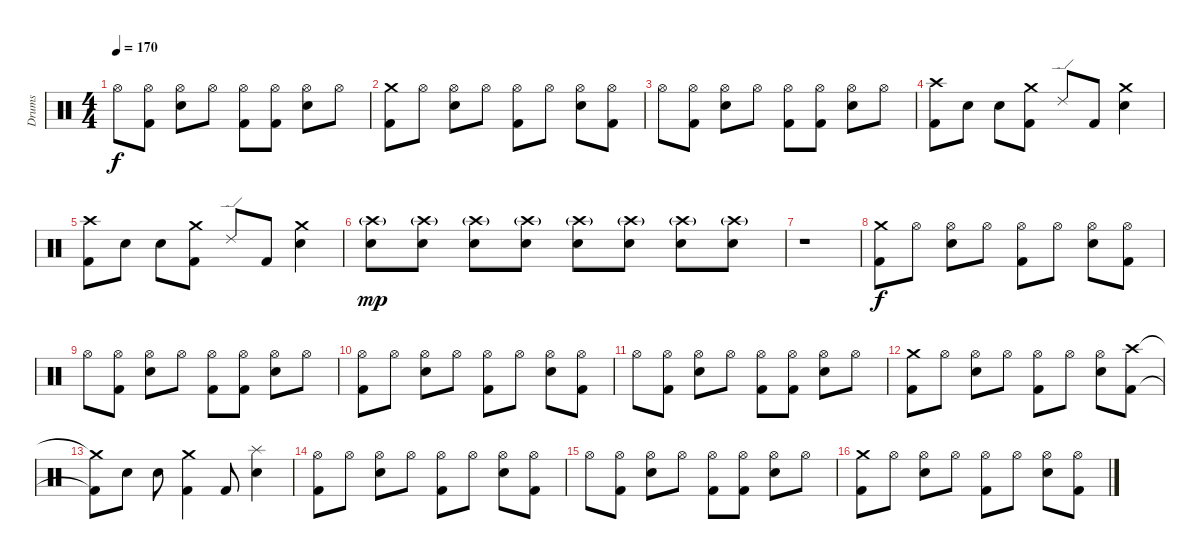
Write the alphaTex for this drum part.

\track ("Drums" "Drums") {instrument percussion}
\staff {score}
\articulation defaults
\ts (4 4)
\tempo 170
\clef neutral
\ks c "Hi-Hat (open)".8{dy f}
("Kick (hit) 2" "Hi-Hat (open)").8 ("Electric Snare (hit)" "Hi-Hat (open)").8 "Hi-Hat (open)".8 ("Kick (hit) 2" "Hi-Hat (open)").8 ("Kick (hit) 2" "Hi-Hat (open)").8 ("Electric Snare (hit)" "Hi-Hat (open)").8 "Hi-Hat (open)".8 |
("Kick (hit) 2" "Crash medium (hit)").8 "Hi-Hat (open)".8 ("Electric Snare (hit)" "Hi-Hat (open)").8 "Hi-Hat (open)".8 ("Kick (hit) 2" "Hi-Hat (open)").8 "Hi-Hat (open)".8 ("Electric Snare (hit)" "Hi-Hat (open)").8 ("Kick (hit) 2" "Hi-Hat (open)").8 |
"Hi-Hat (open)".8 ("Kick (hit) 2" "Hi-Hat (open)").8 ("Electric Snare (hit)" "Hi-Hat (open)").8 "Hi-Hat (open)".8 ("Kick (hit) 2" "Hi-Hat (open)").8 ("Kick (hit) 2" "Hi-Hat (open)").8 ("Electric Snare (hit)" "Hi-Hat (open)").8 "Hi-Hat (open)".8 |
("Kick (hit) 2" "Crash high (hit)").8 "Electric Snare (hit)".8 "Electric Snare (hit)".8 ("Kick (hit) 2" "Crash medium (hit)").8 "Ride (edge) 2".8 "Kick (hit) 2".8 ("Electric Snare (hit)" "Crash medium (hit)").4 |
("Kick (hit) 2" "Crash high (hit)").8 "Electric Snare (hit)".8 "Electric Snare (hit)".8 ("Kick (hit) 2" "Crash medium (hit)").8 "Ride (edge) 2".8 "Kick (hit) 2".8 ("Electric Snare (hit)" "Crash medium (hit)").4 |
("Electric Snare (hit)" "Crash high (hit)"{g}).8{dy mp} ("Electric Snare (hit)" "Crash high (hit)"{g}).8 ("Electric Snare (hit)" "Crash high (hit)"{g}).8 ("Electric Snare (hit)" "Crash high (hit)"{g}).8 ("Electric Snare (hit)" "Crash high (hit)"{g}).8 ("Electric Snare (hit)" "Crash high (hit)"{g}).8 ("Electric Snare (hit)" "Crash high (hit)"{g}).8 ("Electric Snare (hit)" "Crash high (hit)"{g}).8 |
r.1 |
("Kick (hit) 2" "Crash medium (hit)").8{dy f} "Hi-Hat (open)".8 ("Electric Snare (hit)" "Hi-Hat (open)").8 "Hi-Hat (open)".8 ("Kick (hit) 2" "Hi-Hat (open)").8 "Hi-Hat (open)".8 ("Electric Snare (hit)" "Hi-Hat (open)").8 ("Kick (hit) 2" "Hi-Hat (open)").8 |
"Hi-Hat (open)".8 ("Kick (hit) 2" "Hi-Hat (open)").8 ("Electric Snare (hit)" "Hi-Hat (open)").8 "Hi-Hat (open)".8 ("Kick (hit) 2" "Hi-Hat (open)").8 ("Kick (hit) 2" "Hi-Hat (open)").8 ("Electric Snare (hit)" "Hi-Hat (open)").8 "Hi-Hat (open)".8 |
("Kick (hit) 2" "Hi-Hat (open)").8 "Hi-Hat (open)".8 ("Electric Snare (hit)" "Hi-Hat (open)").8 "Hi-Hat (open)".8 ("Kick (hit) 2" "Hi-Hat (open)").8 "Hi-Hat (open)".8 ("Electric Snare (hit)" "Hi-Hat (open)").8 ("Kick (hit) 2" "Hi-Hat (open)").8 |
"Hi-Hat (open)".8 ("Kick (hit) 2" "Hi-Hat (open)").8 ("Electric Snare (hit)" "Hi-Hat (open)").8 "Hi-Hat (open)".8 ("Kick (hit) 2" "Hi-Hat (open)").8 ("Kick (hit) 2" "Hi-Hat (open)").8 ("Electric Snare (hit)" "Hi-Hat (open)").8 "Hi-Hat (open)".8 |
("Kick (hit) 2" "Crash medium (hit)").8 "Hi-Hat (open)".8 ("Electric Snare (hit)" "Hi-Hat (open)").8 "Hi-Hat (open)".8 ("Kick (hit) 2" "Hi-Hat (open)").8 "Hi-Hat (open)".8 ("Electric Snare (hit)" "Hi-Hat (open)").8 ("Kick (hit) 2" "Crash high (hit)").8 |
("Kick (hit) 2"{t} "Crash medium (hit)"{t}).8 "Electric Snare (hit)".8 "Electric Snare (hit)".8 ("Kick (hit) 2" "Crash medium (hit)").4 "Kick (hit) 2".8 ("Electric Snare (hit)" "Splash (hit)").4 |
("Kick (hit) 2" "Hi-Hat (open)").8 "Hi-Hat (open)".8 ("Electric Snare (hit)" "Hi-Hat (open)").8 "Hi-Hat (open)".8 ("Kick (hit) 2" "Hi-Hat (open)").8 "Hi-Hat (open)".8 ("Electric Snare (hit)" "Hi-Hat (open)").8 ("Kick (hit) 2" "Hi-Hat (open)").8 |
"Hi-Hat (open)".8 ("Kick (hit) 2" "Hi-Hat (open)").8 ("Electric Snare (hit)" "Hi-Hat (open)").8 "Hi-Hat (open)".8 ("Kick (hit) 2" "Hi-Hat (open)").8 ("Kick (hit) 2" "Hi-Hat (open)").8 ("Electric Snare (hit)" "Hi-Hat (open)").8 "Hi-Hat (open)".8 |
("Kick (hit) 2" "Crash medium (hit)").8 "Hi-Hat (open)".8 ("Electric Snare (hit)" "Hi-Hat (open)").8 "Hi-Hat (open)".8 ("Kick (hit) 2" "Hi-Hat (open)").8 "Hi-Hat (open)".8 ("Electric Snare (hit)" "Hi-Hat (open)").8 ("Kick (hit) 2" "Hi-Hat (open)").8
